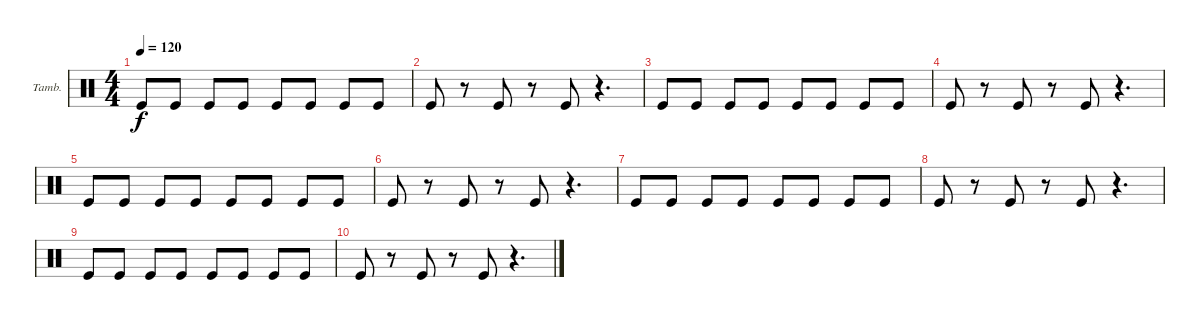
\bracketExtendMode groupsimilarinstruments
\firstSystemTrackNameOrientation horizontal
\otherSystemsTrackNameOrientation horizontal
\track ("Tambourine" "Tamb.") {instrument percussion}
\staff {score}
\articulation defaults
\ts (4 4)
\tempo 120
\clef neutral
\ks c "Kick (hit)".8{dy f} "Kick (hit)".8 "Kick (hit)".8 "Kick (hit)".8 "Kick (hit)".8 "Kick (hit)".8 "Kick (hit)".8 "Kick (hit)".8
|
"Kick (hit)".8 r.8 "Kick (hit)".8 r.8 "Kick (hit)".8 r.4{d} |
"Kick (hit)".8 "Kick (hit)".8 "Kick (hit)".8 "Kick (hit)".8 "Kick (hit)".8 "Kick (hit)".8 "Kick (hit)".8 "Kick (hit)".8 |
"Kick (hit)".8 r.8 "Kick (hit)".8 r.8 "Kick (hit)".8 r.4{d} |
"Kick (hit)".8 "Kick (hit)".8 "Kick (hit)".8 "Kick (hit)".8 "Kick (hit)".8 "Kick (hit)".8 "Kick (hit)".8 "Kick (hit)".8 |
"Kick (hit)".8 r.8 "Kick (hit)".8 r.8 "Kick (hit)".8 r.4{d} |
"Kick (hit)".8 "Kick (hit)".8 "Kick (hit)".8 "Kick (hit)".8 "Kick (hit)".8 "Kick (hit)".8 "Kick (hit)".8 "Kick (hit)".8 |
"Kick (hit)".8 r.8 "Kick (hit)".8 r.8 "Kick (hit)".8 r.4{d} |
"Kick (hit)".8 "Kick (hit)".8 "Kick (hit)".8 "Kick (hit)".8 "Kick (hit)".8 "Kick (hit)".8 "Kick (hit)".8 "Kick (hit)".8 |
"Kick (hit)".8 r.8 "Kick (hit)".8 r.8 "Kick (hit)".8 r.4{d}
